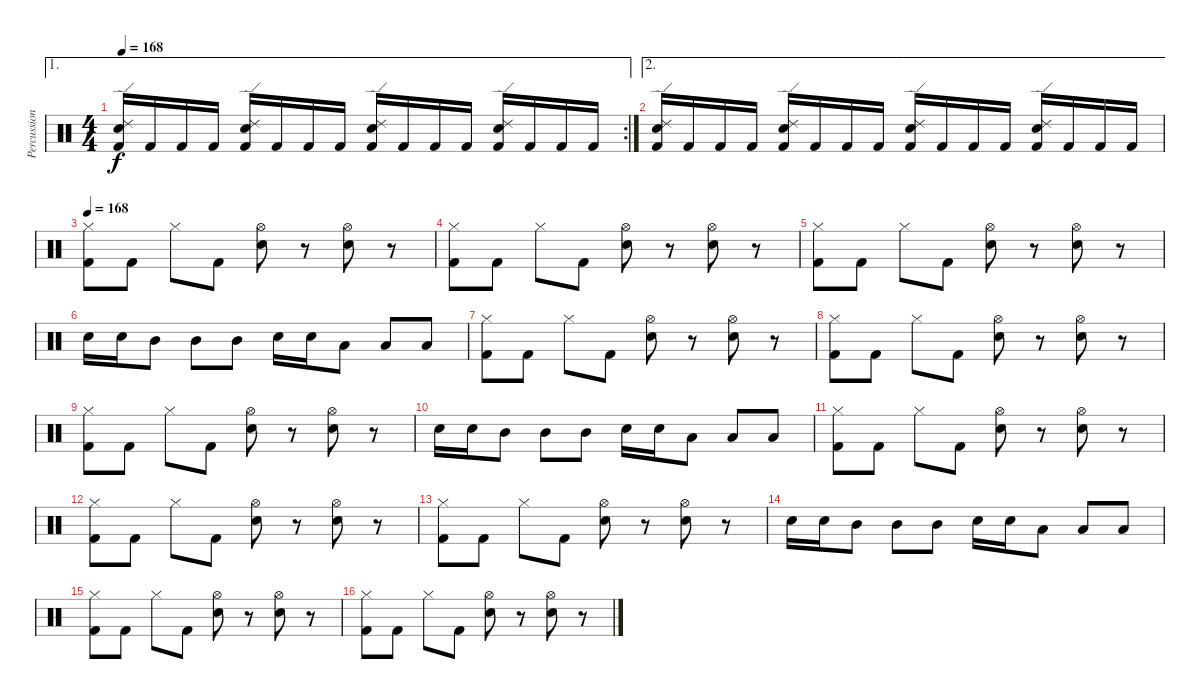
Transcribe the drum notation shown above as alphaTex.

\track ("Percussion" "Percussion") {instrument percussion}
\staff {score}
\articulation defaults
\ae 1
\rc 2
\ts (4 4)
\tempo 168
\clef neutral
\ks c
("Ride (edge) 2" "Snare (hit) 2" "Kick (hit) 2").16{dy f} "Kick (hit) 2".16 "Kick (hit) 2".16 "Kick (hit) 2".16 ("Ride (edge) 2" "Snare (hit) 2" "Kick (hit) 2").16 "Kick (hit) 2".16 "Kick (hit) 2".16 "Kick (hit) 2".16 ("Ride (edge) 2" "Snare (hit) 2" "Kick (hit) 2").16 "Kick (hit) 2".16 "Kick (hit) 2".16 "Kick (hit) 2".16 ("Ride (edge) 2" "Snare (hit) 2" "Kick (hit) 2").16 "Kick (hit) 2".16 "Kick (hit) 2".16 "Kick (hit) 2".16 |
\ae 2
("Ride (edge) 2" "Snare (hit) 2" "Kick (hit) 2").16 "Kick (hit) 2".16 "Kick (hit) 2".16 "Kick (hit) 2".16 ("Ride (edge) 2" "Snare (hit) 2" "Kick (hit) 2").16 "Kick (hit) 2".16 "Kick (hit) 2".16 "Kick (hit) 2".16 ("Ride (edge) 2" "Snare (hit) 2" "Kick (hit) 2").16 "Kick (hit) 2".16 "Kick (hit) 2".16 "Kick (hit) 2".16 ("Ride (edge) 2" "Snare (hit) 2" "Kick (hit) 2").16 "Kick (hit) 2".16 "Kick (hit) 2".16 "Kick (hit) 2".16 |
\tempo 168
("Hi-Hat (closed)" "Kick (hit) 2").8 "Kick (hit) 2".8 "Hi-Hat (closed)".8 "Kick (hit) 2".8 ("Hi-Hat (open)" "Snare (hit) 2").8 r.8 ("Hi-Hat (open)" "Snare (hit) 2").8 r.8 |
("Hi-Hat (closed)" "Kick (hit) 2").8 "Kick (hit) 2".8 "Hi-Hat (closed)".8 "Kick (hit) 2".8 ("Hi-Hat (open)" "Snare (hit) 2").8 r.8 ("Hi-Hat (open)" "Snare (hit) 2").8 r.8 |
("Hi-Hat (closed)" "Kick (hit) 2").8 "Kick (hit) 2".8 "Hi-Hat (closed)".8 "Kick (hit) 2".8 ("Hi-Hat (open)" "Snare (hit) 2").8 r.8 ("Hi-Hat (open)" "Snare (hit) 2").8 r.8 |
"Snare (hit) 2".16 "Snare (hit) 2".16 "Mid Tom (hit)".8 "Mid Tom (hit)".8 "Mid Tom (hit)".8 "Snare (hit) 2".16 "Snare (hit) 2".16 "Low Tom (hit)".8 "Low Tom (hit)".8 "Low Tom (hit)".8 |
("Hi-Hat (closed)" "Kick (hit) 2").8 "Kick (hit) 2".8 "Hi-Hat (closed)".8 "Kick (hit) 2".8 ("Hi-Hat (open)" "Snare (hit) 2").8 r.8 ("Hi-Hat (open)" "Snare (hit) 2").8 r.8 |
("Hi-Hat (closed)" "Kick (hit) 2").8 "Kick (hit) 2".8 "Hi-Hat (closed)".8 "Kick (hit) 2".8 ("Hi-Hat (open)" "Snare (hit) 2").8 r.8 ("Hi-Hat (open)" "Snare (hit) 2").8 r.8 |
("Hi-Hat (closed)" "Kick (hit) 2").8 "Kick (hit) 2".8 "Hi-Hat (closed)".8 "Kick (hit) 2".8 ("Hi-Hat (open)" "Snare (hit) 2").8 r.8 ("Hi-Hat (open)" "Snare (hit) 2").8 r.8 |
"Snare (hit) 2".16 "Snare (hit) 2".16 "Mid Tom (hit)".8 "Mid Tom (hit)".8 "Mid Tom (hit)".8 "Snare (hit) 2".16 "Snare (hit) 2".16 "Low Tom (hit)".8 "Low Tom (hit)".8 "Low Tom (hit)".8 |
("Hi-Hat (closed)" "Kick (hit) 2").8 "Kick (hit) 2".8 "Hi-Hat (closed)".8 "Kick (hit) 2".8 ("Hi-Hat (open)" "Snare (hit) 2").8 r.8 ("Hi-Hat (open)" "Snare (hit) 2").8 r.8 |
("Hi-Hat (closed)" "Kick (hit) 2").8 "Kick (hit) 2".8 "Hi-Hat (closed)".8 "Kick (hit) 2".8 ("Hi-Hat (open)" "Snare (hit) 2").8 r.8 ("Hi-Hat (open)" "Snare (hit) 2").8 r.8 |
("Hi-Hat (closed)" "Kick (hit) 2").8 "Kick (hit) 2".8 "Hi-Hat (closed)".8 "Kick (hit) 2".8 ("Hi-Hat (open)" "Snare (hit) 2").8 r.8 ("Hi-Hat (open)" "Snare (hit) 2").8 r.8 |
"Snare (hit) 2".16 "Snare (hit) 2".16 "Mid Tom (hit)".8 "Mid Tom (hit)".8 "Mid Tom (hit)".8 "Snare (hit) 2".16 "Snare (hit) 2".16 "Low Tom (hit)".8 "Low Tom (hit)".8 "Low Tom (hit)".8 |
("Hi-Hat (closed)" "Kick (hit) 2").8 "Kick (hit) 2".8 "Hi-Hat (closed)".8 "Kick (hit) 2".8 ("Hi-Hat (open)" "Snare (hit) 2").8 r.8 ("Hi-Hat (open)" "Snare (hit) 2").8 r.8 |
("Hi-Hat (closed)" "Kick (hit) 2").8 "Kick (hit) 2".8 "Hi-Hat (closed)".8 "Kick (hit) 2".8 ("Hi-Hat (open)" "Snare (hit) 2").8 r.8 ("Hi-Hat (open)" "Snare (hit) 2").8 r.8
